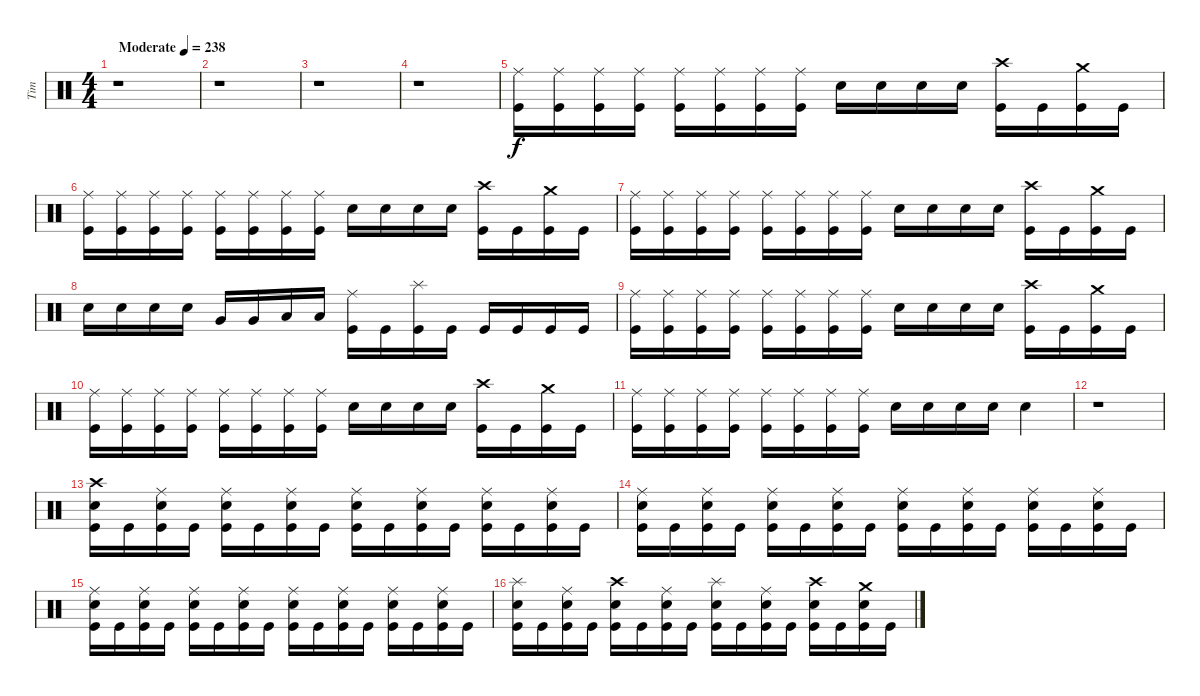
\track ("Tim" "Tim") {instrument percussion}
\staff {score}
\articulation defaults
\ts (4 4)
\tempo (238 "Moderate")
\clef neutral
\ks c
r.1{dy f} |
r.1 |
r.1 |
r.1 |
("Ride (middle)" "Kick (hit)").16 ("Ride (middle)" "Kick (hit)").16 ("Ride (middle)" "Kick (hit)").16 ("Ride (middle)" "Kick (hit)").16 ("Ride (middle)" "Kick (hit)").16 ("Ride (middle)" "Kick (hit)").16 ("Ride (middle)" "Kick (hit)").16 ("Ride (middle)" "Kick (hit)").16 "Electric Snare (hit)".16 "Electric Snare (hit)".16 "Electric Snare (hit)".16 "Electric Snare (hit)".16 ("Crash high (hit)" "Kick (hit)").16 "Kick (hit)".16 ("Crash medium (hit)" "Kick (hit)").16 "Kick (hit)".16 |
("Ride (middle)" "Kick (hit)").16 ("Ride (middle)" "Kick (hit)").16 ("Ride (middle)" "Kick (hit)").16 ("Ride (middle)" "Kick (hit)").16 ("Ride (middle)" "Kick (hit)").16 ("Ride (middle)" "Kick (hit)").16 ("Ride (middle)" "Kick (hit)").16 ("Ride (middle)" "Kick (hit)").16 "Electric Snare (hit)".16 "Electric Snare (hit)".16 "Electric Snare (hit)".16 "Electric Snare (hit)".16 ("Crash high (hit)" "Kick (hit)").16 "Kick (hit)".16 ("Crash medium (hit)" "Kick (hit)").16 "Kick (hit)".16 |
("Ride (middle)" "Kick (hit)").16 ("Ride (middle)" "Kick (hit)").16 ("Ride (middle)" "Kick (hit)").16 ("Ride (middle)" "Kick (hit)").16 ("Ride (middle)" "Kick (hit)").16 ("Ride (middle)" "Kick (hit)").16 ("Ride (middle)" "Kick (hit)").16 ("Ride (middle)" "Kick (hit)").16 "Electric Snare (hit)".16 "Electric Snare (hit)".16 "Electric Snare (hit)".16 "Electric Snare (hit)".16 ("Crash high (hit)" "Kick (hit)").16 "Kick (hit)".16 ("Crash medium (hit)" "Kick (hit)").16 "Kick (hit)".16 |
"Electric Snare (hit)".16 "Electric Snare (hit)".16 "Electric Snare (hit)".16 "Electric Snare (hit)".16 "Very Low Tom (hit)".16 "Very Low Tom (hit)".16 "Low Floor Tom (hit)".16 "Low Floor Tom (hit)".16 ("Ride (middle)" "Kick (hit)").16 "Kick (hit)".16 ("Splash (hit)" "Kick (hit)").16 "Kick (hit)".16 "Kick (hit)".16 "Kick (hit)".16 "Kick (hit)".16 "Kick (hit)".16 |
("Ride (middle)" "Kick (hit)").16 ("Ride (middle)" "Kick (hit)").16 ("Ride (middle)" "Kick (hit)").16 ("Ride (middle)" "Kick (hit)").16 ("Ride (middle)" "Kick (hit)").16 ("Ride (middle)" "Kick (hit)").16 ("Ride (middle)" "Kick (hit)").16 ("Ride (middle)" "Kick (hit)").16 "Electric Snare (hit)".16 "Electric Snare (hit)".16 "Electric Snare (hit)".16 "Electric Snare (hit)".16 ("Crash high (hit)" "Kick (hit)").16 "Kick (hit)".16 ("Crash medium (hit)" "Kick (hit)").16 "Kick (hit)".16 |
("Ride (middle)" "Kick (hit)").16 ("Ride (middle)" "Kick (hit)").16 ("Ride (middle)" "Kick (hit)").16 ("Ride (middle)" "Kick (hit)").16 ("Ride (middle)" "Kick (hit)").16 ("Ride (middle)" "Kick (hit)").16 ("Ride (middle)" "Kick (hit)").16 ("Ride (middle)" "Kick (hit)").16 "Electric Snare (hit)".16 "Electric Snare (hit)".16 "Electric Snare (hit)".16 "Electric Snare (hit)".16 ("Crash high (hit)" "Kick (hit)").16 "Kick (hit)".16 ("Crash medium (hit)" "Kick (hit)").16 "Kick (hit)".16 |
("Ride (middle)" "Kick (hit)").16 ("Ride (middle)" "Kick (hit)").16 ("Ride (middle)" "Kick (hit)").16 ("Ride (middle)" "Kick (hit)").16 ("Ride (middle)" "Kick (hit)").16 ("Ride (middle)" "Kick (hit)").16 ("Ride (middle)" "Kick (hit)").16 ("Ride (middle)" "Kick (hit)").16 "Electric Snare (hit)".16 "Electric Snare (hit)".16 "Electric Snare (hit)".16 "Electric Snare (hit)".16 "Electric Snare (hit)".4 |
r.1 |
("Crash high (hit)" "Electric Snare (hit)" "Kick (hit)").16 "Kick (hit)".16 ("Ride (middle)" "Electric Snare (hit)" "Kick (hit)").16 "Kick (hit)".16 ("Ride (middle)" "Electric Snare (hit)" "Kick (hit)").16 "Kick (hit)".16 ("Ride (middle)" "Electric Snare (hit)" "Kick (hit)").16 "Kick (hit)".16 ("Ride (middle)" "Electric Snare (hit)" "Kick (hit)").16 "Kick (hit)".16 ("Ride (middle)" "Electric Snare (hit)" "Kick (hit)").16 "Kick (hit)".16 ("Ride (middle)" "Electric Snare (hit)" "Kick (hit)").16 "Kick (hit)".16 ("Ride (middle)" "Electric Snare (hit)" "Kick (hit)").16 "Kick (hit)".16 |
("Ride (middle)" "Electric Snare (hit)" "Kick (hit)").16 "Kick (hit)".16 ("Ride (middle)" "Electric Snare (hit)" "Kick (hit)").16 "Kick (hit)".16 ("Ride (middle)" "Electric Snare (hit)" "Kick (hit)").16 "Kick (hit)".16 ("Ride (middle)" "Electric Snare (hit)" "Kick (hit)").16 "Kick (hit)".16 ("Ride (middle)" "Electric Snare (hit)" "Kick (hit)").16 "Kick (hit)".16 ("Ride (middle)" "Electric Snare (hit)" "Kick (hit)").16 "Kick (hit)".16 ("Ride (middle)" "Electric Snare (hit)" "Kick (hit)").16 "Kick (hit)".16 ("Ride (middle)" "Electric Snare (hit)" "Kick (hit)").16 "Kick (hit)".16 |
("Ride (middle)" "Electric Snare (hit)" "Kick (hit)").16 "Kick (hit)".16 ("Ride (middle)" "Electric Snare (hit)" "Kick (hit)").16 "Kick (hit)".16 ("Ride (middle)" "Electric Snare (hit)" "Kick (hit)").16 "Kick (hit)".16 ("Ride (middle)" "Electric Snare (hit)" "Kick (hit)").16 "Kick (hit)".16 ("Ride (middle)" "Electric Snare (hit)" "Kick (hit)").16 "Kick (hit)".16 ("Ride (middle)" "Electric Snare (hit)" "Kick (hit)").16 "Kick (hit)".16 ("Ride (middle)" "Electric Snare (hit)" "Kick (hit)").16 "Kick (hit)".16 ("Ride (middle)" "Electric Snare (hit)" "Kick (hit)").16 "Kick (hit)".16 |
("Splash (hit)" "Electric Snare (hit)" "Kick (hit)").16 "Kick (hit)".16 ("Ride (middle)" "Electric Snare (hit)" "Kick (hit)").16 "Kick (hit)".16 ("Crash high (hit)" "Electric Snare (hit)" "Kick (hit)").16 "Kick (hit)".16 ("Ride (middle)" "Electric Snare (hit)" "Kick (hit)").16 "Kick (hit)".16 ("Splash (hit)" "Electric Snare (hit)" "Kick (hit)").16 "Kick (hit)".16 ("Ride (middle)" "Electric Snare (hit)" "Kick (hit)").16 "Kick (hit)".16 ("Crash high (hit)" "Electric Snare (hit)" "Kick (hit)").16 "Kick (hit)".16 ("Crash medium (hit)" "Electric Snare (hit)" "Kick (hit)").16 "Kick (hit)".16
